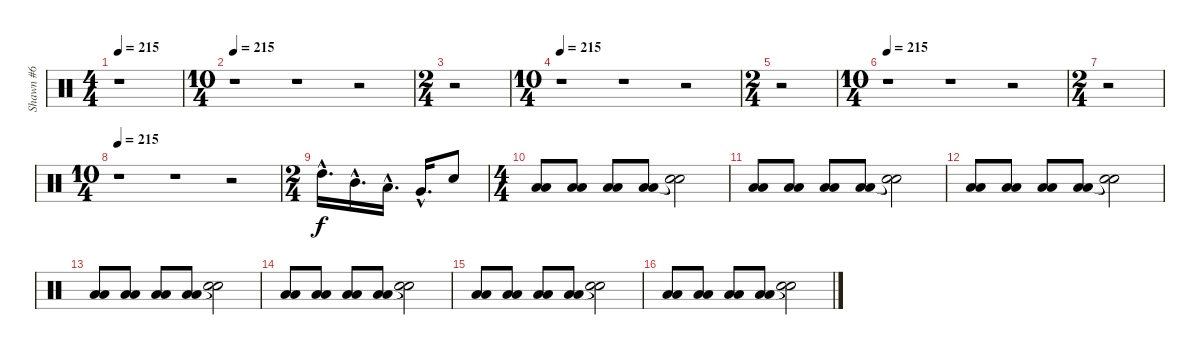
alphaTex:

\track ("Shawn #6" "Shawn #6") {instrument percussion}
\staff {score}
\articulation defaults
\ts (4 4)
\tempo 215
\clef neutral
\ks c
r.1{dy f} |
\ts (10 4)
\tempo 215
r.1 r.1 r.2 |
\ts (2 4)
r.2 |
\ts (10 4)
\tempo 215
r.1 r.1 r.2 |
\ts (2 4)
r.2 |
\ts (10 4)
\tempo 215
r.1 r.1 r.2 |
\ts (2 4)
r.2 |
\ts (10 4)
\tempo 215
r.1 r.1 r.2 |
\ts (2 4)
"High Tom (hit)"{hac}.16{d volume 16} "Mid Tom (hit)"{hac}.16{d} "Low Tom (hit)"{hac}.16{d} "Very Low Tom (hit)"{hac}.16{d} "Snare (hit) 2".8 |
\ts (4 4)
("Low Floor Tom (hit)" "Low Floor Tom (hit)").8{volume 16} ("Low Floor Tom (hit)" "Low Floor Tom (hit)").8 ("Low Floor Tom (hit)" "Low Floor Tom (hit)").8 ("Low Floor Tom (hit)" "Low Floor Tom (hit)").8 ("Snare (hit)"{t} "Snare (hit)"{t}).2 |
("Low Floor Tom (hit)" "Low Floor Tom (hit)").8 ("Low Floor Tom (hit)" "Low Floor Tom (hit)").8 ("Low Floor Tom (hit)" "Low Floor Tom (hit)").8 ("Low Floor Tom (hit)" "Low Floor Tom (hit)").8 ("Snare (hit)"{t} "Snare (hit)"{t}).2 |
("Low Floor Tom (hit)" "Low Floor Tom (hit)").8 ("Low Floor Tom (hit)" "Low Floor Tom (hit)").8 ("Low Floor Tom (hit)" "Low Floor Tom (hit)").8 ("Low Floor Tom (hit)" "Low Floor Tom (hit)").8 ("Snare (hit)"{t} "Snare (hit)"{t}).2 |
("Low Floor Tom (hit)" "Low Floor Tom (hit)").8 ("Low Floor Tom (hit)" "Low Floor Tom (hit)").8 ("Low Floor Tom (hit)" "Low Floor Tom (hit)").8 ("Low Floor Tom (hit)" "Low Floor Tom (hit)").8 ("Snare (hit)"{t} "Snare (hit)"{t}).2 |
("Low Floor Tom (hit)" "Low Floor Tom (hit)").8 ("Low Floor Tom (hit)" "Low Floor Tom (hit)").8 ("Low Floor Tom (hit)" "Low Floor Tom (hit)").8 ("Low Floor Tom (hit)" "Low Floor Tom (hit)").8 ("Snare (hit)"{t} "Snare (hit)"{t}).2 |
("Low Floor Tom (hit)" "Low Floor Tom (hit)").8 ("Low Floor Tom (hit)" "Low Floor Tom (hit)").8 ("Low Floor Tom (hit)" "Low Floor Tom (hit)").8 ("Low Floor Tom (hit)" "Low Floor Tom (hit)").8 ("Snare (hit)"{t} "Snare (hit)"{t}).2 |
("Low Floor Tom (hit)" "Low Floor Tom (hit)").8 ("Low Floor Tom (hit)" "Low Floor Tom (hit)").8 ("Low Floor Tom (hit)" "Low Floor Tom (hit)").8 ("Low Floor Tom (hit)" "Low Floor Tom (hit)").8 ("Snare (hit)"{t} "Snare (hit)"{t}).2
